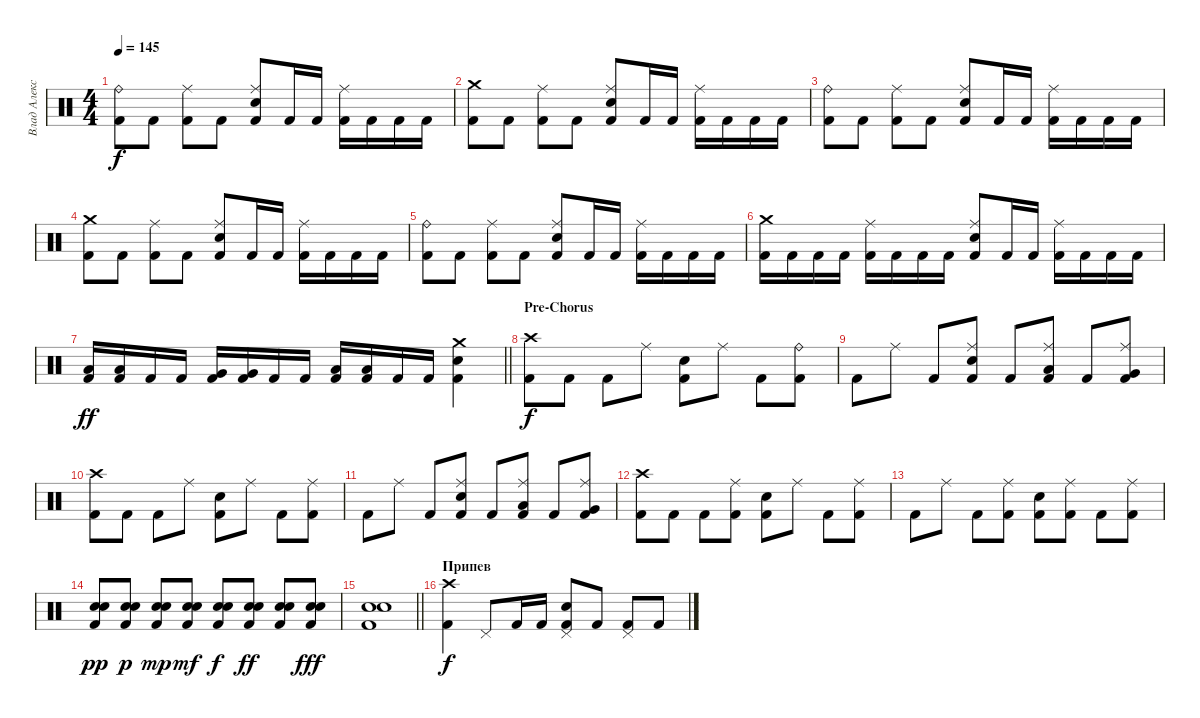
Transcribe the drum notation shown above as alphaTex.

\track ("Влад Алексеенко" "Влад Алекс") {instrument percussion}
\staff {score}
\articulation defaults
\ts (4 4)
\tempo 145
\clef neutral
\ks c
("Ride (bell)" "Kick (hit) 2").8{dy f} "Kick (hit) 2".8 ("Ride (middle)" "Kick (hit) 2").8 "Kick (hit) 2".8 ("Ride (middle)" "Electric Snare (hit)" "Kick (hit) 2").8 "Kick (hit) 2".16 "Kick (hit) 2".16 ("Ride (middle)" "Kick (hit) 2").16 "Kick (hit) 2".16 "Kick (hit) 2".16 "Kick (hit) 2".16 |
("Crash medium (hit)" "Kick (hit) 2").8 "Kick (hit) 2".8 ("Ride (middle)" "Kick (hit) 2").8 "Kick (hit) 2".8 ("Ride (middle)" "Electric Snare (hit)" "Kick (hit) 2").8 "Kick (hit) 2".16 "Kick (hit) 2".16 ("Ride (middle)" "Kick (hit) 2").16 "Kick (hit) 2".16 "Kick (hit) 2".16 "Kick (hit) 2".16 |
("Ride (bell)" "Kick (hit) 2").8 "Kick (hit) 2".8 ("Ride (middle)" "Kick (hit) 2").8 "Kick (hit) 2".8 ("Ride (middle)" "Electric Snare (hit)" "Kick (hit) 2").8 "Kick (hit) 2".16 "Kick (hit) 2".16 ("Ride (middle)" "Kick (hit) 2").16 "Kick (hit) 2".16 "Kick (hit) 2".16 "Kick (hit) 2".16 |
("Crash medium (hit)" "Kick (hit) 2").8 "Kick (hit) 2".8 ("Ride (middle)" "Kick (hit) 2").8 "Kick (hit) 2".8 ("Ride (middle)" "Electric Snare (hit)" "Kick (hit) 2").8 "Kick (hit) 2".16 "Kick (hit) 2".16 ("Ride (middle)" "Kick (hit) 2").16 "Kick (hit) 2".16 "Kick (hit) 2".16 "Kick (hit) 2".16 |
("Ride (bell)" "Kick (hit) 2").8 "Kick (hit) 2".8 ("Ride (middle)" "Kick (hit) 2").8 "Kick (hit) 2".8 ("Ride (middle)" "Electric Snare (hit)" "Kick (hit) 2").8 "Kick (hit) 2".16 "Kick (hit) 2".16 ("Ride (middle)" "Kick (hit) 2").16 "Kick (hit) 2".16 "Kick (hit) 2".16 "Kick (hit) 2".16 |
("Crash medium (hit)" "Kick (hit) 2").16 "Kick (hit) 2".16 "Kick (hit) 2".16 "Kick (hit) 2".16 ("Ride (middle)" "Kick (hit) 2").16 "Kick (hit) 2".16 "Kick (hit) 2".16 "Kick (hit) 2".16 ("Ride (middle)" "Electric Snare (hit)" "Kick (hit) 2").8 "Kick (hit) 2".16 "Kick (hit) 2".16 ("Ride (middle)" "Kick (hit) 2").16 "Kick (hit) 2".16 "Kick (hit) 2".16 "Kick (hit) 2".16 |
\barLineRight lightlight
("Low Tom (hit)" "Kick (hit) 2").16{dy ff} ("Low Tom (hit)" "Kick (hit) 2").16 "Kick (hit) 2".16 "Kick (hit) 2".16 ("Very Low Tom (hit)" "Kick (hit) 2").16 ("Very Low Tom (hit)" "Kick (hit) 2").16 "Kick (hit) 2".16 "Kick (hit) 2".16 ("Low Floor Tom (hit)" "Kick (hit) 2").16 ("Low Floor Tom (hit)" "Kick (hit) 2").16 "Kick (hit) 2".16 "Kick (hit) 2".16 ("Crash medium (hit)" "Electric Snare (hit)" "Kick (hit) 2").4 |
\section ("" "Pre-Chorus")
("Crash high (hit)" "Kick (hit) 2").8{dy f} "Kick (hit) 2".8 "Kick (hit) 2".8 "Ride (middle)".8 ("Electric Snare (hit)" "Kick (hit) 2").8 "Ride (middle)".8 "Kick (hit) 2".8 ("Ride (bell)" "Kick (hit) 2").8 |
"Kick (hit) 2".8 "Ride (middle)".8 "Kick (hit) 2".8 ("Ride (middle)" "Electric Snare (hit)" "Kick (hit) 2").8 "Kick (hit) 2".8 ("Ride (middle)" "Low Tom (hit)" "Kick (hit) 2").8 "Kick (hit) 2".8 ("Ride (middle)" "Very Low Tom (hit)" "Kick (hit) 2").8 |
("Crash high (hit)" "Kick (hit) 2").8 "Kick (hit) 2".8 "Kick (hit) 2".8 "Ride (middle)".8 ("Electric Snare (hit)" "Kick (hit) 2").8 "Ride (middle)".8 "Kick (hit) 2".8 ("Ride (middle)" "Kick (hit) 2").8 |
"Kick (hit) 2".8 "Ride (middle)".8 "Kick (hit) 2".8 ("Ride (middle)" "Electric Snare (hit)" "Kick (hit) 2").8 "Kick (hit) 2".8 ("Ride (middle)" "Low Tom (hit)" "Kick (hit) 2").8 "Kick (hit) 2".8 ("Ride (middle)" "Very Low Tom (hit)" "Kick (hit) 2").8 |
("Crash high (hit)" "Kick (hit) 2").8 "Kick (hit) 2".8 "Kick (hit) 2".8 ("Ride (middle)" "Kick (hit) 2").8 ("Electric Snare (hit)" "Kick (hit) 2").8 "Ride (middle)".8 "Kick (hit) 2".8 ("Ride (middle)" "Kick (hit) 2").8 |
"Kick (hit) 2".8 "Ride (middle)".8 "Kick (hit) 2".8 ("Ride (middle)" "Kick (hit) 2").8 ("Electric Snare (hit)" "Kick (hit) 2").8 ("Ride (middle)" "Kick (hit) 2").8 "Kick (hit) 2".8 ("Ride (middle)" "Kick (hit) 2").8 |
("Electric Snare (hit)" "Electric Snare (hit)" "Kick (hit) 2").8{dy pp} ("Electric Snare (hit)" "Electric Snare (hit)" "Kick (hit) 2").8{dy p} ("Electric Snare (hit)" "Electric Snare (hit)" "Kick (hit) 2").8{dy mp} ("Electric Snare (hit)" "Electric Snare (hit)" "Kick (hit) 2").8{dy mf} ("Electric Snare (hit)" "Electric Snare (hit)" "Kick (hit) 2").8{dy f} ("Electric Snare (hit)" "Electric Snare (hit)" "Kick (hit) 2").8{dy ff} ("Electric Snare (hit)" "Electric Snare (hit)" "Kick (hit) 2").8 ("Electric Snare (hit)" "Electric Snare (hit)" "Kick (hit) 2").8{dy fff} |
\barLineRight lightlight
("Electric Snare (hit)" "Electric Snare (hit)" "Kick (hit) 2").1 |
\section ("" "Припев")
("Crash high (hit)" "Kick (hit) 2").4{dy f} "Pedal Hi-Hat (hit)".8 "Kick (hit) 2".16 "Kick (hit) 2".16 ("Pedal Hi-Hat (hit)" "Electric Snare (hit)" "Kick (hit) 2").8 "Kick (hit) 2".8 ("Pedal Hi-Hat (hit)" "Kick (hit) 2").8 "Kick (hit) 2".8
